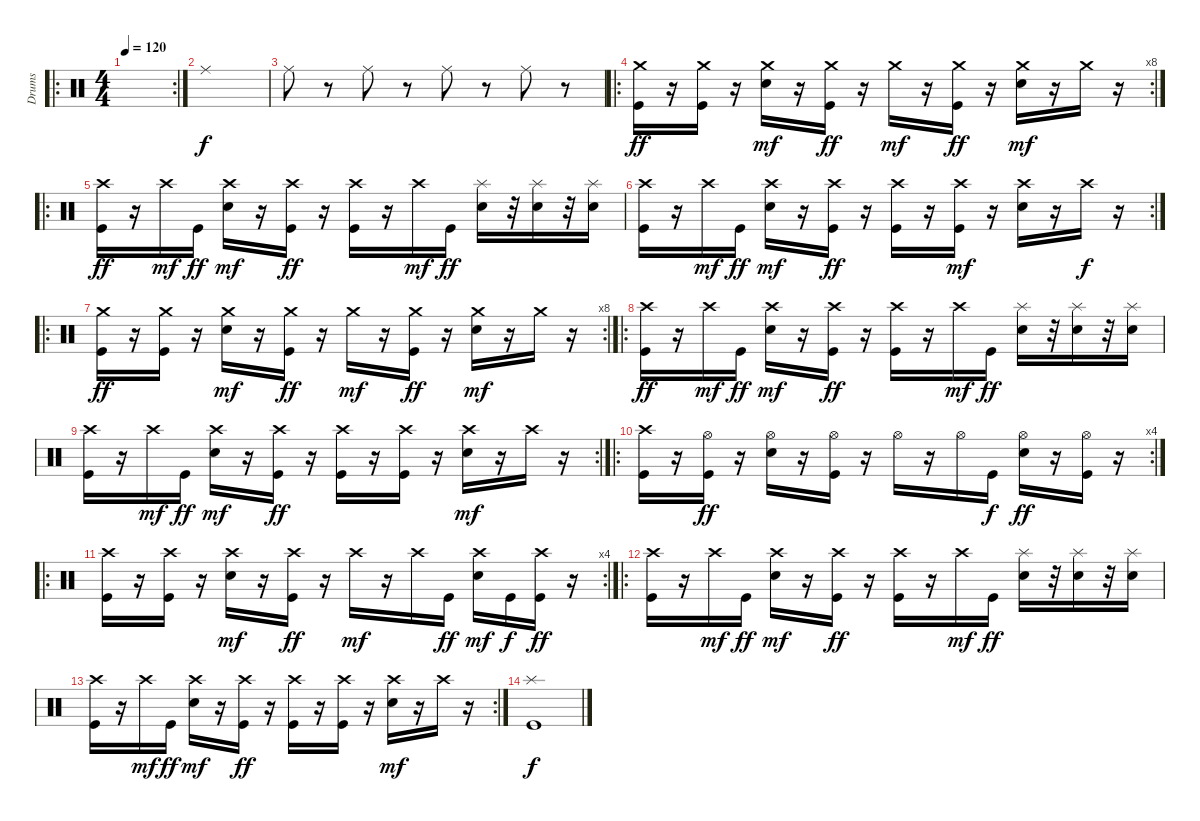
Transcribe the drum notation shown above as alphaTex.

\track ("Drums" "Drums") {instrument percussion}
\staff {score}
\articulation defaults
\ro
\rc 2
\ts (4 4)
\tempo 120
\clef neutral
\ks c
|
"Ride (middle)".1 |
"Ride (middle)".8 r.8 "Ride (middle)".8 r.8 "Ride (middle)".8 r.8 "Ride (middle)".8 r.8 |
\ro
\rc 8
("Crash medium (hit)" "Kick (hit)").16{dy ff} r.16 ("Crash medium (hit)" "Kick (hit)").16 r.16 ("Crash medium (hit)" "Metronome (bell)").16{dy mf} r.16 ("Crash medium (hit)" "Kick (hit)").16{dy ff} r.16 "Crash medium (hit)".16{dy mf} r.16 ("Crash medium (hit)" "Kick (hit)").16{dy ff} r.16 ("Crash medium (hit)" "Metronome (bell)").16{dy mf} r.16 "Crash medium (hit)".16 r.16 |
\ro
("Crash high (hit)" "Kick (hit)").16{dy ff} r.16 "Crash high (hit)".16{dy mf} "Kick (hit)".16{dy ff} ("Crash high (hit)" "Metronome (bell)").16{dy mf} r.16 ("Crash high (hit)" "Kick (hit)").16{dy ff} r.16 ("Crash high (hit)" "Kick (hit)").16 r.16 "Crash high (hit)".16{dy mf} "Kick (hit)".16{dy ff} ("Splash (hit)" "Metronome (bell)").16 r.32 ("Splash (hit)" "Metronome (bell)").16 r.32 ("Splash (hit)" "Metronome (bell)").16 |
\rc 2
("Crash high (hit)" "Kick (hit)").16 r.16 "Crash high (hit)".16{dy mf} "Kick (hit)".16{dy ff} ("Crash high (hit)" "Metronome (bell)").16{dy mf} r.16 ("Crash high (hit)" "Kick (hit)").16{dy ff} r.16 ("Crash high (hit)" "Kick (hit)").16 r.16 ("Crash high (hit)" "Kick (hit)").16{dy mf} r.16 ("Crash high (hit)" "Metronome (bell)").16 r.16 "Crash high (hit)".16{dy f} r.16 |
\ro
\rc 8
("Crash medium (hit)" "Kick (hit)").16{dy ff} r.16 ("Crash medium (hit)" "Kick (hit)").16 r.16 ("Crash medium (hit)" "Metronome (bell)").16{dy mf} r.16 ("Crash medium (hit)" "Kick (hit)").16{dy ff} r.16 "Crash medium (hit)".16{dy mf} r.16 ("Crash medium (hit)" "Kick (hit)").16{dy ff} r.16 ("Crash medium (hit)" "Metronome (bell)").16{dy mf} r.16 "Crash medium (hit)".16 r.16 |
\ro
("Crash high (hit)" "Kick (hit)").16{dy ff} r.16 "Crash high (hit)".16{dy mf} "Kick (hit)".16{dy ff} ("Crash high (hit)" "Metronome (bell)").16{dy mf} r.16 ("Crash high (hit)" "Kick (hit)").16{dy ff} r.16 ("Crash high (hit)" "Kick (hit)").16 r.16 "Crash high (hit)".16{dy mf} "Kick (hit)".16{dy ff} ("Splash (hit)" "Metronome (bell)").16 r.32 ("Splash (hit)" "Metronome (bell)").16 r.32 ("Splash (hit)" "Metronome (bell)").16 |
\rc 2
("Crash high (hit)" "Kick (hit)").16 r.16 "Crash high (hit)".16{dy mf} "Kick (hit)".16{dy ff} ("Crash high (hit)" "Metronome (bell)").16{dy mf} r.16 ("Crash high (hit)" "Kick (hit)").16{dy ff} r.16 ("Crash high (hit)" "Kick (hit)").16 r.16 ("Crash high (hit)" "Kick (hit)").16 r.16 ("Crash high (hit)" "Metronome (bell)").16{dy mf} r.16 "Crash high (hit)".16 r.16 |
\ro
\rc 4
("Crash high (hit)" "Kick (hit)").16 r.16 ("Hi-Hat (open)" "Kick (hit)").16{dy ff} r.16 ("Hi-Hat (open)" "Metronome (bell)").16 r.16 ("Hi-Hat (open)" "Kick (hit)").16 r.16 "Hi-Hat (open)".16 r.16 "Hi-Hat (open)".16 "Kick (hit)".16{dy f} ("Hi-Hat (open)" "Metronome (bell)").16{dy ff} r.16 ("Hi-Hat (open)" "Kick (hit)").16 r.16 |
\ro
\rc 4
("Crash high (hit)" "Kick (hit)").16 r.16 ("Crash high (hit)" "Kick (hit)").16 r.16 ("Crash high (hit)" "Metronome (bell)").16{dy mf} r.16 ("Crash high (hit)" "Kick (hit)").16{dy ff} r.16 "Crash high (hit)".16{dy mf} r.16 "Crash high (hit)".16 "Kick (hit)".16{dy ff} ("Crash high (hit)" "Metronome (bell)").16{dy mf} "Kick (hit)".16{dy f} ("Crash high (hit)" "Kick (hit)").16{dy ff} r.16 |
\ro
("Crash high (hit)" "Kick (hit)").16 r.16 "Crash high (hit)".16{dy mf} "Kick (hit)".16{dy ff} ("Crash high (hit)" "Metronome (bell)").16{dy mf} r.16 ("Crash high (hit)" "Kick (hit)").16{dy ff} r.16 ("Crash high (hit)" "Kick (hit)").16 r.16 "Crash high (hit)".16{dy mf} "Kick (hit)".16{dy ff} ("Splash (hit)" "Metronome (bell)").16 r.32 ("Splash (hit)" "Metronome (bell)").16 r.32 ("Splash (hit)" "Metronome (bell)").16 |
\rc 2
("Crash high (hit)" "Kick (hit)").16 r.16 "Crash high (hit)".16{dy mf} "Kick (hit)".16{dy ff} ("Crash high (hit)" "Metronome (bell)").16{dy mf} r.16 ("Crash high (hit)" "Kick (hit)").16{dy ff} r.16 ("Crash high (hit)" "Kick (hit)").16 r.16 ("Crash high (hit)" "Kick (hit)").16 r.16 ("Crash high (hit)" "Metronome (bell)").16{dy mf} r.16 "Crash high (hit)".16 r.16 |
("Splash (hit)" "Kick (hit)").1{dy f}
